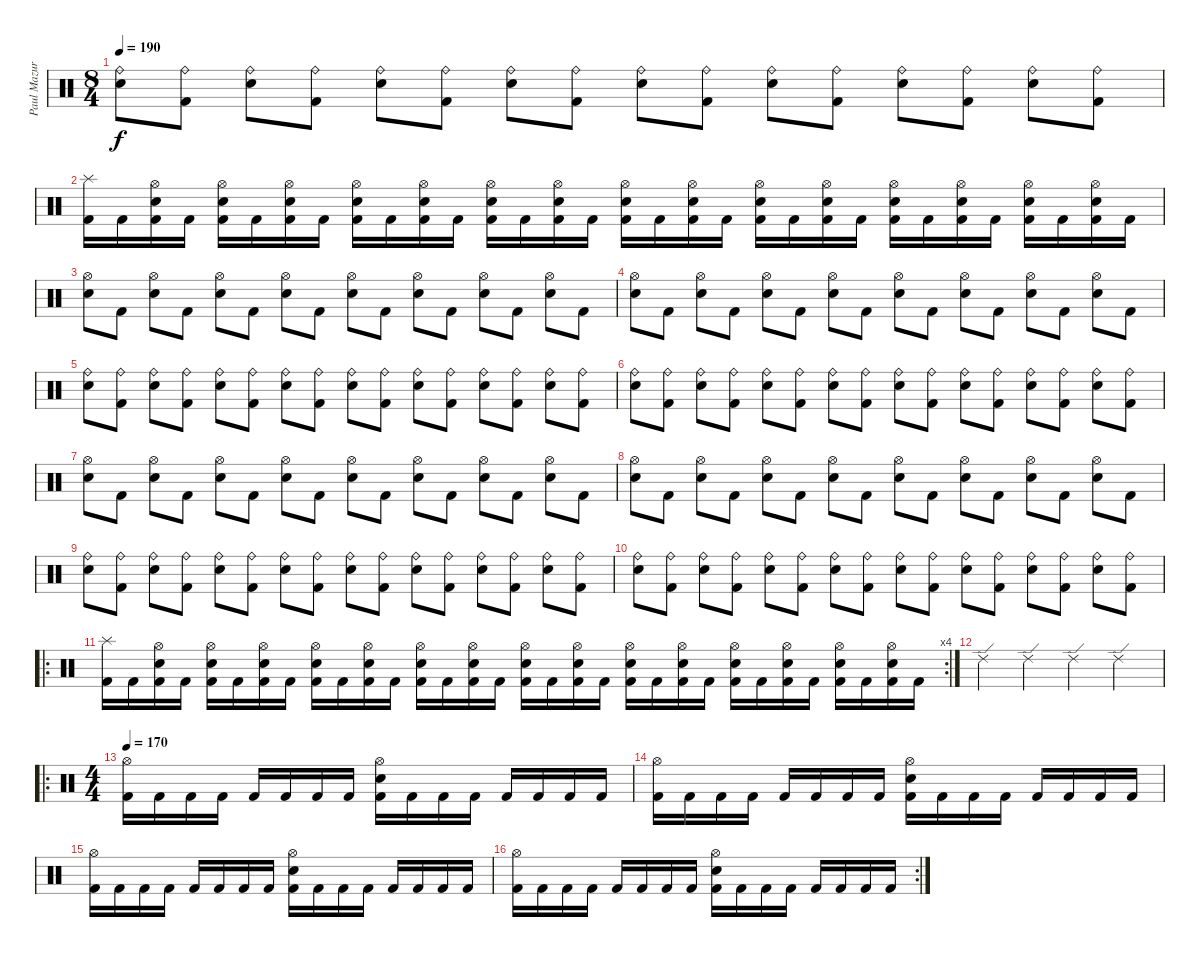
\track ("Paul Mazurkiewicz" "Paul Mazur") {instrument percussion}
\staff {score}
\articulation defaults
\ts (8 4)
\tempo 190
\clef neutral
\ks c
("Ride (bell)" "Snare (hit) 2").8{dy f} ("Ride (bell)" "Kick (hit) 2").8 ("Ride (bell)" "Snare (hit) 2").8 ("Ride (bell)" "Kick (hit) 2").8 ("Ride (bell)" "Snare (hit) 2").8 ("Ride (bell)" "Kick (hit) 2").8 ("Ride (bell)" "Snare (hit) 2").8 ("Ride (bell)" "Kick (hit) 2").8 ("Ride (bell)" "Snare (hit) 2").8 ("Ride (bell)" "Kick (hit) 2").8 ("Ride (bell)" "Snare (hit) 2").8 ("Ride (bell)" "Kick (hit) 2").8 ("Ride (bell)" "Snare (hit) 2").8 ("Ride (bell)" "Kick (hit) 2").8 ("Ride (bell)" "Snare (hit) 2").8 ("Ride (bell)" "Kick (hit) 2").8 |
("Splash (hit)" "Kick (hit) 2").16 "Kick (hit) 2".16 ("Hi-Hat (open)" "Snare (hit) 2" "Kick (hit) 2").16 "Kick (hit) 2".16 ("Hi-Hat (open)" "Snare (hit) 2" "Kick (hit) 2").16 "Kick (hit) 2".16 ("Hi-Hat (open)" "Snare (hit) 2" "Kick (hit) 2").16 "Kick (hit) 2".16 ("Hi-Hat (open)" "Snare (hit) 2" "Kick (hit) 2").16 "Kick (hit) 2".16 ("Hi-Hat (open)" "Snare (hit) 2" "Kick (hit) 2").16 "Kick (hit) 2".16 ("Hi-Hat (open)" "Snare (hit) 2" "Kick (hit) 2").16 "Kick (hit) 2".16 ("Hi-Hat (open)" "Snare (hit) 2" "Kick (hit) 2").16 "Kick (hit) 2".16 ("Hi-Hat (open)" "Snare (hit) 2" "Kick (hit) 2").16 "Kick (hit) 2".16 ("Hi-Hat (open)" "Snare (hit) 2" "Kick (hit) 2").16 "Kick (hit) 2".16 ("Hi-Hat (open)" "Snare (hit) 2" "Kick (hit) 2").16 "Kick (hit) 2".16 ("Hi-Hat (open)" "Snare (hit) 2" "Kick (hit) 2").16 "Kick (hit) 2".16 ("Hi-Hat (open)" "Snare (hit) 2" "Kick (hit) 2").16 "Kick (hit) 2".16 ("Hi-Hat (open)" "Snare (hit) 2" "Kick (hit) 2").16 "Kick (hit) 2".16 ("Hi-Hat (open)" "Snare (hit) 2" "Kick (hit) 2").16 "Kick (hit) 2".16 ("Hi-Hat (open)" "Snare (hit) 2" "Kick (hit) 2").16 "Kick (hit) 2".16 |
("Hi-Hat (open)" "Snare (hit) 2").8 "Kick (hit) 2".8 ("Hi-Hat (open)" "Snare (hit) 2").8 "Kick (hit) 2".8 ("Hi-Hat (open)" "Snare (hit) 2").8 "Kick (hit) 2".8 ("Hi-Hat (open)" "Snare (hit) 2").8 "Kick (hit) 2".8 ("Hi-Hat (open)" "Snare (hit) 2").8 "Kick (hit) 2".8 ("Hi-Hat (open)" "Snare (hit) 2").8 "Kick (hit) 2".8 ("Hi-Hat (open)" "Snare (hit) 2").8 "Kick (hit) 2".8 ("Hi-Hat (open)" "Snare (hit) 2").8 "Kick (hit) 2".8 |
("Hi-Hat (open)" "Snare (hit) 2").8 "Kick (hit) 2".8 ("Hi-Hat (open)" "Snare (hit) 2").8 "Kick (hit) 2".8 ("Hi-Hat (open)" "Snare (hit) 2").8 "Kick (hit) 2".8 ("Hi-Hat (open)" "Snare (hit) 2").8 "Kick (hit) 2".8 ("Hi-Hat (open)" "Snare (hit) 2").8 "Kick (hit) 2".8 ("Hi-Hat (open)" "Snare (hit) 2").8 "Kick (hit) 2".8 ("Hi-Hat (open)" "Snare (hit) 2").8 "Kick (hit) 2".8 ("Hi-Hat (open)" "Snare (hit) 2").8 "Kick (hit) 2".8 |
("Ride (bell)" "Snare (hit) 2").8 ("Ride (bell)" "Kick (hit) 2").8 ("Ride (bell)" "Snare (hit) 2").8 ("Ride (bell)" "Kick (hit) 2").8 ("Ride (bell)" "Snare (hit) 2").8 ("Ride (bell)" "Kick (hit) 2").8 ("Ride (bell)" "Snare (hit) 2").8 ("Ride (bell)" "Kick (hit) 2").8 ("Ride (bell)" "Snare (hit) 2").8 ("Ride (bell)" "Kick (hit) 2").8 ("Ride (bell)" "Snare (hit) 2").8 ("Ride (bell)" "Kick (hit) 2").8 ("Ride (bell)" "Snare (hit) 2").8 ("Ride (bell)" "Kick (hit) 2").8 ("Ride (bell)" "Snare (hit) 2").8 ("Ride (bell)" "Kick (hit) 2").8 |
("Ride (bell)" "Snare (hit) 2").8 ("Ride (bell)" "Kick (hit) 2").8 ("Ride (bell)" "Snare (hit) 2").8 ("Ride (bell)" "Kick (hit) 2").8 ("Ride (bell)" "Snare (hit) 2").8 ("Ride (bell)" "Kick (hit) 2").8 ("Ride (bell)" "Snare (hit) 2").8 ("Ride (bell)" "Kick (hit) 2").8 ("Ride (bell)" "Snare (hit) 2").8 ("Ride (bell)" "Kick (hit) 2").8 ("Ride (bell)" "Snare (hit) 2").8 ("Ride (bell)" "Kick (hit) 2").8 ("Ride (bell)" "Snare (hit) 2").8 ("Ride (bell)" "Kick (hit) 2").8 ("Ride (bell)" "Snare (hit) 2").8 ("Ride (bell)" "Kick (hit) 2").8 |
("Hi-Hat (open)" "Snare (hit) 2").8 "Kick (hit) 2".8 ("Hi-Hat (open)" "Snare (hit) 2").8 "Kick (hit) 2".8 ("Hi-Hat (open)" "Snare (hit) 2").8 "Kick (hit) 2".8 ("Hi-Hat (open)" "Snare (hit) 2").8 "Kick (hit) 2".8 ("Hi-Hat (open)" "Snare (hit) 2").8 "Kick (hit) 2".8 ("Hi-Hat (open)" "Snare (hit) 2").8 "Kick (hit) 2".8 ("Hi-Hat (open)" "Snare (hit) 2").8 "Kick (hit) 2".8 ("Hi-Hat (open)" "Snare (hit) 2").8 "Kick (hit) 2".8 |
("Hi-Hat (open)" "Snare (hit) 2").8 "Kick (hit) 2".8 ("Hi-Hat (open)" "Snare (hit) 2").8 "Kick (hit) 2".8 ("Hi-Hat (open)" "Snare (hit) 2").8 "Kick (hit) 2".8 ("Hi-Hat (open)" "Snare (hit) 2").8 "Kick (hit) 2".8 ("Hi-Hat (open)" "Snare (hit) 2").8 "Kick (hit) 2".8 ("Hi-Hat (open)" "Snare (hit) 2").8 "Kick (hit) 2".8 ("Hi-Hat (open)" "Snare (hit) 2").8 "Kick (hit) 2".8 ("Hi-Hat (open)" "Snare (hit) 2").8 "Kick (hit) 2".8 |
("Ride (bell)" "Snare (hit) 2").8 ("Ride (bell)" "Kick (hit) 2").8 ("Ride (bell)" "Snare (hit) 2").8 ("Ride (bell)" "Kick (hit) 2").8 ("Ride (bell)" "Snare (hit) 2").8 ("Ride (bell)" "Kick (hit) 2").8 ("Ride (bell)" "Snare (hit) 2").8 ("Ride (bell)" "Kick (hit) 2").8 ("Ride (bell)" "Snare (hit) 2").8 ("Ride (bell)" "Kick (hit) 2").8 ("Ride (bell)" "Snare (hit) 2").8 ("Ride (bell)" "Kick (hit) 2").8 ("Ride (bell)" "Snare (hit) 2").8 ("Ride (bell)" "Kick (hit) 2").8 ("Ride (bell)" "Snare (hit) 2").8 ("Ride (bell)" "Kick (hit) 2").8 |
("Ride (bell)" "Snare (hit) 2").8 ("Ride (bell)" "Kick (hit) 2").8 ("Ride (bell)" "Snare (hit) 2").8 ("Ride (bell)" "Kick (hit) 2").8 ("Ride (bell)" "Snare (hit) 2").8 ("Ride (bell)" "Kick (hit) 2").8 ("Ride (bell)" "Snare (hit) 2").8 ("Ride (bell)" "Kick (hit) 2").8 ("Ride (bell)" "Snare (hit) 2").8 ("Ride (bell)" "Kick (hit) 2").8 ("Ride (bell)" "Snare (hit) 2").8 ("Ride (bell)" "Kick (hit) 2").8 ("Ride (bell)" "Snare (hit) 2").8 ("Ride (bell)" "Kick (hit) 2").8 ("Ride (bell)" "Snare (hit) 2").8 ("Ride (bell)" "Kick (hit) 2").8 |
\ro
\rc 4
("Splash (hit)" "Kick (hit) 2").16 "Kick (hit) 2".16 ("Hi-Hat (open)" "Snare (hit) 2" "Kick (hit) 2").16 "Kick (hit) 2".16 ("Hi-Hat (open)" "Snare (hit) 2" "Kick (hit) 2").16 "Kick (hit) 2".16 ("Hi-Hat (open)" "Snare (hit) 2" "Kick (hit) 2").16 "Kick (hit) 2".16 ("Hi-Hat (open)" "Snare (hit) 2" "Kick (hit) 2").16 "Kick (hit) 2".16 ("Hi-Hat (open)" "Snare (hit) 2" "Kick (hit) 2").16 "Kick (hit) 2".16 ("Hi-Hat (open)" "Snare (hit) 2" "Kick (hit) 2").16 "Kick (hit) 2".16 ("Hi-Hat (open)" "Snare (hit) 2" "Kick (hit) 2").16 "Kick (hit) 2".16 ("Hi-Hat (open)" "Snare (hit) 2" "Kick (hit) 2").16 "Kick (hit) 2".16 ("Hi-Hat (open)" "Snare (hit) 2" "Kick (hit) 2").16 "Kick (hit) 2".16 ("Hi-Hat (open)" "Snare (hit) 2" "Kick (hit) 2").16 "Kick (hit) 2".16 ("Hi-Hat (open)" "Snare (hit) 2" "Kick (hit) 2").16 "Kick (hit) 2".16 ("Hi-Hat (open)" "Snare (hit) 2" "Kick (hit) 2").16 "Kick (hit) 2".16 ("Hi-Hat (open)" "Snare (hit) 2" "Kick (hit) 2").16 "Kick (hit) 2".16 ("Hi-Hat (open)" "Snare (hit) 2" "Kick (hit) 2").16 "Kick (hit) 2".16 ("Hi-Hat (open)" "Snare (hit) 2" "Kick (hit) 2").16 "Kick (hit) 2".16 |
"Ride (edge) 2".2 "Ride (edge) 2".2 "Ride (edge) 2".2 "Ride (edge) 2".2 |
\ro
\ts (4 4)
\tempo 170
("Hi-Hat (open)" "Kick (hit) 2").16 "Kick (hit) 2".16 "Kick (hit) 2".16 "Kick (hit) 2".16 "Kick (hit) 2".16 "Kick (hit) 2".16 "Kick (hit) 2".16 "Kick (hit) 2".16 ("Hi-Hat (open)" "Snare (hit) 2" "Kick (hit) 2").16 "Kick (hit) 2".16 "Kick (hit) 2".16 "Kick (hit) 2".16 "Kick (hit) 2".16 "Kick (hit) 2".16 "Kick (hit) 2".16 "Kick (hit) 2".16 |
("Hi-Hat (open)" "Kick (hit) 2").16 "Kick (hit) 2".16 "Kick (hit) 2".16 "Kick (hit) 2".16 "Kick (hit) 2".16 "Kick (hit) 2".16 "Kick (hit) 2".16 "Kick (hit) 2".16 ("Hi-Hat (open)" "Snare (hit) 2" "Kick (hit) 2").16 "Kick (hit) 2".16 "Kick (hit) 2".16 "Kick (hit) 2".16 "Kick (hit) 2".16 "Kick (hit) 2".16 "Kick (hit) 2".16 "Kick (hit) 2".16 |
("Hi-Hat (open)" "Kick (hit) 2").16 "Kick (hit) 2".16 "Kick (hit) 2".16 "Kick (hit) 2".16 "Kick (hit) 2".16 "Kick (hit) 2".16 "Kick (hit) 2".16 "Kick (hit) 2".16 ("Hi-Hat (open)" "Snare (hit) 2" "Kick (hit) 2").16 "Kick (hit) 2".16 "Kick (hit) 2".16 "Kick (hit) 2".16 "Kick (hit) 2".16 "Kick (hit) 2".16 "Kick (hit) 2".16 "Kick (hit) 2".16 |
\rc 2
("Hi-Hat (open)" "Kick (hit) 2").16 "Kick (hit) 2".16 "Kick (hit) 2".16 "Kick (hit) 2".16 "Kick (hit) 2".16 "Kick (hit) 2".16 "Kick (hit) 2".16 "Kick (hit) 2".16 ("Hi-Hat (open)" "Snare (hit) 2" "Kick (hit) 2").16 "Kick (hit) 2".16 "Kick (hit) 2".16 "Kick (hit) 2".16 "Kick (hit) 2".16 "Kick (hit) 2".16 "Kick (hit) 2".16 "Kick (hit) 2".16
